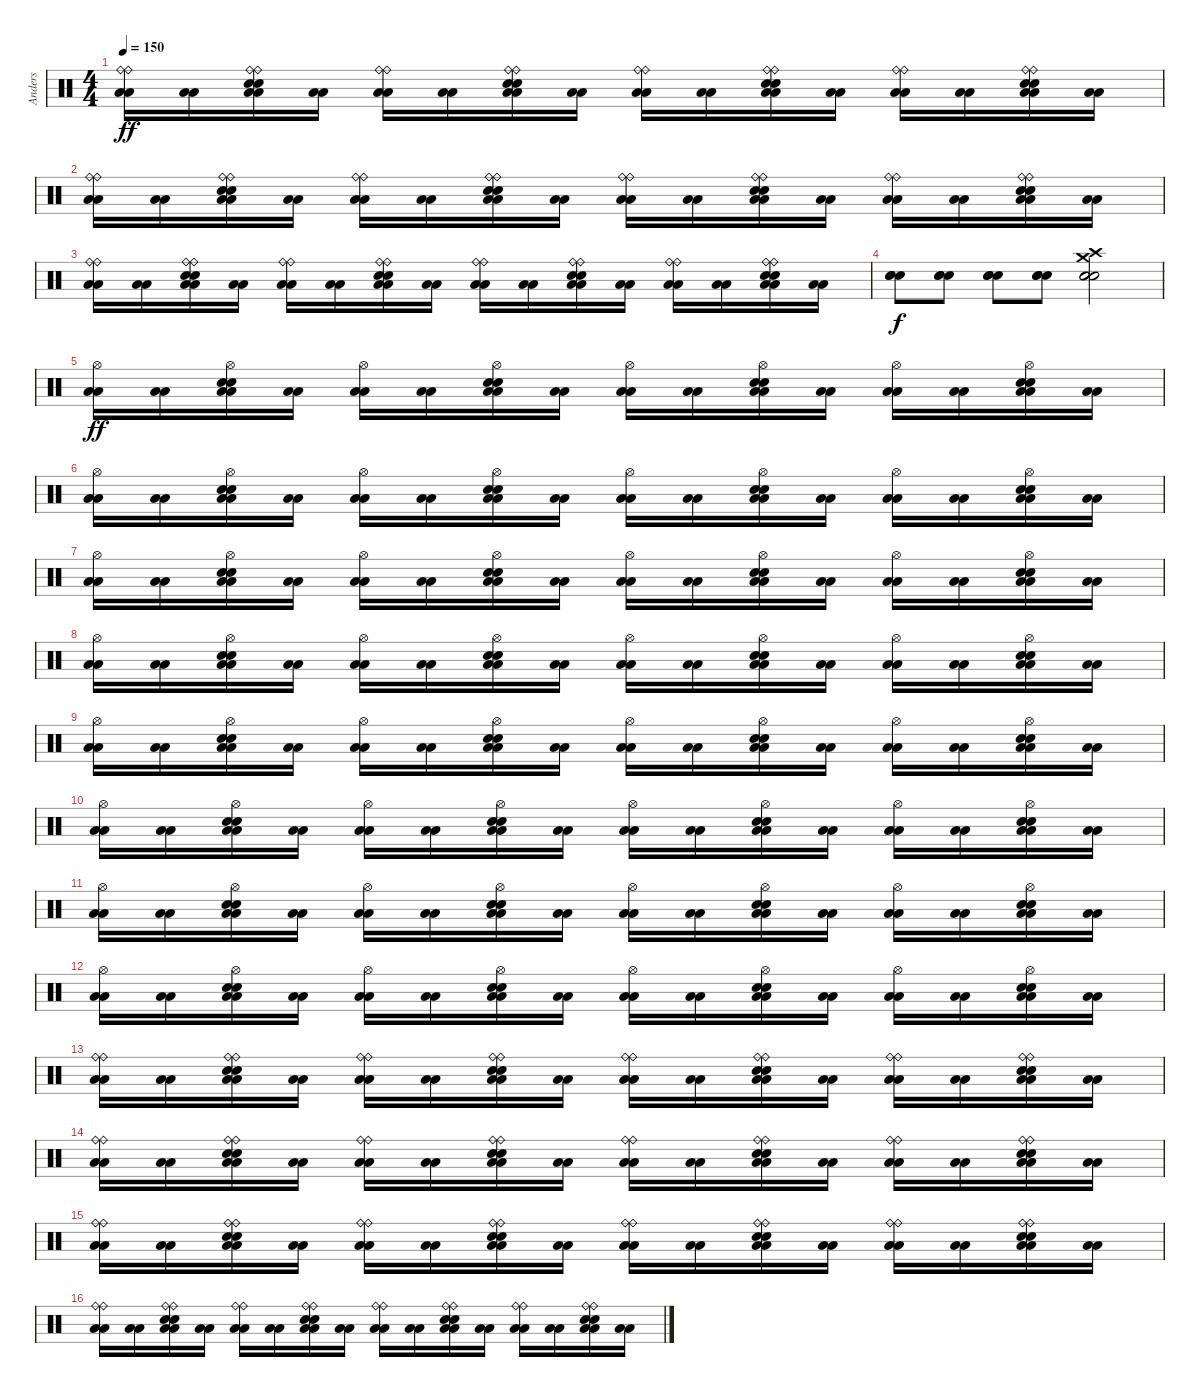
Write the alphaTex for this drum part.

\track ("Anders" "Anders") {instrument percussion}
\staff {score}
\articulation defaults
\ts (4 4)
\tempo 150
\clef neutral
\ks c
("Ride (bell)" "Ride (bell)" "Low Floor Tom (hit)" "Low Floor Tom (hit)").16{dy ff} ("Low Floor Tom (hit)" "Low Floor Tom (hit)").16 ("Ride (bell)" "Ride (bell)" "Electric Snare (hit)" "Electric Snare (hit)" "Low Floor Tom (hit)" "Low Floor Tom (hit)").16 ("Low Floor Tom (hit)" "Low Floor Tom (hit)").16 ("Ride (bell)" "Ride (bell)" "Low Floor Tom (hit)" "Low Floor Tom (hit)").16 ("Low Floor Tom (hit)" "Low Floor Tom (hit)").16 ("Ride (bell)" "Ride (bell)" "Electric Snare (hit)" "Electric Snare (hit)" "Low Floor Tom (hit)" "Low Floor Tom (hit)").16 ("Low Floor Tom (hit)" "Low Floor Tom (hit)").16 ("Ride (bell)" "Ride (bell)" "Low Floor Tom (hit)" "Low Floor Tom (hit)").16 ("Low Floor Tom (hit)" "Low Floor Tom (hit)").16 ("Ride (bell)" "Ride (bell)" "Electric Snare (hit)" "Electric Snare (hit)" "Low Floor Tom (hit)" "Low Floor Tom (hit)").16 ("Low Floor Tom (hit)" "Low Floor Tom (hit)").16 ("Ride (bell)" "Ride (bell)" "Low Floor Tom (hit)" "Low Floor Tom (hit)").16 ("Low Floor Tom (hit)" "Low Floor Tom (hit)").16 ("Ride (bell)" "Ride (bell)" "Electric Snare (hit)" "Electric Snare (hit)" "Low Floor Tom (hit)" "Low Floor Tom (hit)").16 ("Low Floor Tom (hit)" "Low Floor Tom (hit)").16 |
("Ride (bell)" "Ride (bell)" "Low Floor Tom (hit)" "Low Floor Tom (hit)").16 ("Low Floor Tom (hit)" "Low Floor Tom (hit)").16 ("Ride (bell)" "Ride (bell)" "Electric Snare (hit)" "Electric Snare (hit)" "Low Floor Tom (hit)" "Low Floor Tom (hit)").16 ("Low Floor Tom (hit)" "Low Floor Tom (hit)").16 ("Ride (bell)" "Ride (bell)" "Low Floor Tom (hit)" "Low Floor Tom (hit)").16 ("Low Floor Tom (hit)" "Low Floor Tom (hit)").16 ("Ride (bell)" "Ride (bell)" "Electric Snare (hit)" "Electric Snare (hit)" "Low Floor Tom (hit)" "Low Floor Tom (hit)").16 ("Low Floor Tom (hit)" "Low Floor Tom (hit)").16 ("Ride (bell)" "Ride (bell)" "Low Floor Tom (hit)" "Low Floor Tom (hit)").16 ("Low Floor Tom (hit)" "Low Floor Tom (hit)").16 ("Ride (bell)" "Ride (bell)" "Electric Snare (hit)" "Electric Snare (hit)" "Low Floor Tom (hit)" "Low Floor Tom (hit)").16 ("Low Floor Tom (hit)" "Low Floor Tom (hit)").16 ("Ride (bell)" "Ride (bell)" "Low Floor Tom (hit)" "Low Floor Tom (hit)").16 ("Low Floor Tom (hit)" "Low Floor Tom (hit)").16 ("Ride (bell)" "Ride (bell)" "Electric Snare (hit)" "Electric Snare (hit)" "Low Floor Tom (hit)" "Low Floor Tom (hit)").16 ("Low Floor Tom (hit)" "Low Floor Tom (hit)").16 |
("Ride (bell)" "Ride (bell)" "Low Floor Tom (hit)" "Low Floor Tom (hit)").16 ("Low Floor Tom (hit)" "Low Floor Tom (hit)").16 ("Ride (bell)" "Ride (bell)" "Electric Snare (hit)" "Electric Snare (hit)" "Low Floor Tom (hit)" "Low Floor Tom (hit)").16 ("Low Floor Tom (hit)" "Low Floor Tom (hit)").16 ("Ride (bell)" "Ride (bell)" "Low Floor Tom (hit)" "Low Floor Tom (hit)").16 ("Low Floor Tom (hit)" "Low Floor Tom (hit)").16 ("Ride (bell)" "Ride (bell)" "Electric Snare (hit)" "Electric Snare (hit)" "Low Floor Tom (hit)" "Low Floor Tom (hit)").16 ("Low Floor Tom (hit)" "Low Floor Tom (hit)").16 ("Ride (bell)" "Ride (bell)" "Low Floor Tom (hit)" "Low Floor Tom (hit)").16 ("Low Floor Tom (hit)" "Low Floor Tom (hit)").16 ("Ride (bell)" "Ride (bell)" "Electric Snare (hit)" "Electric Snare (hit)" "Low Floor Tom (hit)" "Low Floor Tom (hit)").16 ("Low Floor Tom (hit)" "Low Floor Tom (hit)").16 ("Ride (bell)" "Ride (bell)" "Low Floor Tom (hit)" "Low Floor Tom (hit)").16 ("Low Floor Tom (hit)" "Low Floor Tom (hit)").16 ("Ride (bell)" "Ride (bell)" "Electric Snare (hit)" "Electric Snare (hit)" "Low Floor Tom (hit)" "Low Floor Tom (hit)").16 ("Low Floor Tom (hit)" "Low Floor Tom (hit)").16 |
("Electric Snare (hit)" "Electric Snare (hit)" "Electric Snare (hit)").8{dy f} ("Electric Snare (hit)" "Electric Snare (hit)" "Electric Snare (hit)").8 ("Electric Snare (hit)" "Electric Snare (hit)" "Electric Snare (hit)").8 ("Electric Snare (hit)" "Electric Snare (hit)" "Electric Snare (hit)").8 ("Crash medium (hit)" "Crash high (hit)" "Electric Snare (hit)" "Electric Snare (hit)" "Electric Snare (hit)").2 |
("Hi-Hat (open)" "Low Floor Tom (hit)" "Low Floor Tom (hit)").16{dy ff} ("Low Floor Tom (hit)" "Low Floor Tom (hit)").16 ("Hi-Hat (open)" "Electric Snare (hit)" "Electric Snare (hit)" "Low Floor Tom (hit)" "Low Floor Tom (hit)").16 ("Low Floor Tom (hit)" "Low Floor Tom (hit)").16 ("Hi-Hat (open)" "Low Floor Tom (hit)" "Low Floor Tom (hit)").16 ("Low Floor Tom (hit)" "Low Floor Tom (hit)").16 ("Hi-Hat (open)" "Electric Snare (hit)" "Electric Snare (hit)" "Low Floor Tom (hit)" "Low Floor Tom (hit)").16 ("Low Floor Tom (hit)" "Low Floor Tom (hit)").16 ("Hi-Hat (open)" "Low Floor Tom (hit)" "Low Floor Tom (hit)").16 ("Low Floor Tom (hit)" "Low Floor Tom (hit)").16 ("Hi-Hat (open)" "Electric Snare (hit)" "Electric Snare (hit)" "Low Floor Tom (hit)" "Low Floor Tom (hit)").16 ("Low Floor Tom (hit)" "Low Floor Tom (hit)").16 ("Hi-Hat (open)" "Low Floor Tom (hit)" "Low Floor Tom (hit)").16 ("Low Floor Tom (hit)" "Low Floor Tom (hit)").16 ("Hi-Hat (open)" "Electric Snare (hit)" "Electric Snare (hit)" "Low Floor Tom (hit)" "Low Floor Tom (hit)").16 ("Low Floor Tom (hit)" "Low Floor Tom (hit)").16 |
("Hi-Hat (open)" "Low Floor Tom (hit)" "Low Floor Tom (hit)").16 ("Low Floor Tom (hit)" "Low Floor Tom (hit)").16 ("Hi-Hat (open)" "Electric Snare (hit)" "Electric Snare (hit)" "Low Floor Tom (hit)" "Low Floor Tom (hit)").16 ("Low Floor Tom (hit)" "Low Floor Tom (hit)").16 ("Hi-Hat (open)" "Low Floor Tom (hit)" "Low Floor Tom (hit)").16 ("Low Floor Tom (hit)" "Low Floor Tom (hit)").16 ("Hi-Hat (open)" "Electric Snare (hit)" "Electric Snare (hit)" "Low Floor Tom (hit)" "Low Floor Tom (hit)").16 ("Low Floor Tom (hit)" "Low Floor Tom (hit)").16 ("Hi-Hat (open)" "Low Floor Tom (hit)" "Low Floor Tom (hit)").16 ("Low Floor Tom (hit)" "Low Floor Tom (hit)").16 ("Hi-Hat (open)" "Electric Snare (hit)" "Electric Snare (hit)" "Low Floor Tom (hit)" "Low Floor Tom (hit)").16 ("Low Floor Tom (hit)" "Low Floor Tom (hit)").16 ("Hi-Hat (open)" "Low Floor Tom (hit)" "Low Floor Tom (hit)").16 ("Low Floor Tom (hit)" "Low Floor Tom (hit)").16 ("Hi-Hat (open)" "Electric Snare (hit)" "Electric Snare (hit)" "Low Floor Tom (hit)" "Low Floor Tom (hit)").16 ("Low Floor Tom (hit)" "Low Floor Tom (hit)").16 |
("Hi-Hat (open)" "Low Floor Tom (hit)" "Low Floor Tom (hit)").16 ("Low Floor Tom (hit)" "Low Floor Tom (hit)").16 ("Hi-Hat (open)" "Electric Snare (hit)" "Electric Snare (hit)" "Low Floor Tom (hit)" "Low Floor Tom (hit)").16 ("Low Floor Tom (hit)" "Low Floor Tom (hit)").16 ("Hi-Hat (open)" "Low Floor Tom (hit)" "Low Floor Tom (hit)").16 ("Low Floor Tom (hit)" "Low Floor Tom (hit)").16 ("Hi-Hat (open)" "Electric Snare (hit)" "Electric Snare (hit)" "Low Floor Tom (hit)" "Low Floor Tom (hit)").16 ("Low Floor Tom (hit)" "Low Floor Tom (hit)").16 ("Hi-Hat (open)" "Low Floor Tom (hit)" "Low Floor Tom (hit)").16 ("Low Floor Tom (hit)" "Low Floor Tom (hit)").16 ("Hi-Hat (open)" "Electric Snare (hit)" "Electric Snare (hit)" "Low Floor Tom (hit)" "Low Floor Tom (hit)").16 ("Low Floor Tom (hit)" "Low Floor Tom (hit)").16 ("Hi-Hat (open)" "Low Floor Tom (hit)" "Low Floor Tom (hit)").16 ("Low Floor Tom (hit)" "Low Floor Tom (hit)").16 ("Hi-Hat (open)" "Electric Snare (hit)" "Electric Snare (hit)" "Low Floor Tom (hit)" "Low Floor Tom (hit)").16 ("Low Floor Tom (hit)" "Low Floor Tom (hit)").16 |
("Hi-Hat (open)" "Low Floor Tom (hit)" "Low Floor Tom (hit)").16 ("Low Floor Tom (hit)" "Low Floor Tom (hit)").16 ("Hi-Hat (open)" "Electric Snare (hit)" "Electric Snare (hit)" "Low Floor Tom (hit)" "Low Floor Tom (hit)").16 ("Low Floor Tom (hit)" "Low Floor Tom (hit)").16 ("Hi-Hat (open)" "Low Floor Tom (hit)" "Low Floor Tom (hit)").16 ("Low Floor Tom (hit)" "Low Floor Tom (hit)").16 ("Hi-Hat (open)" "Electric Snare (hit)" "Electric Snare (hit)" "Low Floor Tom (hit)" "Low Floor Tom (hit)").16 ("Low Floor Tom (hit)" "Low Floor Tom (hit)").16 ("Hi-Hat (open)" "Low Floor Tom (hit)" "Low Floor Tom (hit)").16 ("Low Floor Tom (hit)" "Low Floor Tom (hit)").16 ("Hi-Hat (open)" "Electric Snare (hit)" "Electric Snare (hit)" "Low Floor Tom (hit)" "Low Floor Tom (hit)").16 ("Low Floor Tom (hit)" "Low Floor Tom (hit)").16 ("Hi-Hat (open)" "Low Floor Tom (hit)" "Low Floor Tom (hit)").16 ("Low Floor Tom (hit)" "Low Floor Tom (hit)").16 ("Hi-Hat (open)" "Electric Snare (hit)" "Electric Snare (hit)" "Low Floor Tom (hit)" "Low Floor Tom (hit)").16 ("Low Floor Tom (hit)" "Low Floor Tom (hit)").16 |
("Hi-Hat (open)" "Low Floor Tom (hit)" "Low Floor Tom (hit)").16 ("Low Floor Tom (hit)" "Low Floor Tom (hit)").16 ("Hi-Hat (open)" "Electric Snare (hit)" "Electric Snare (hit)" "Low Floor Tom (hit)" "Low Floor Tom (hit)").16 ("Low Floor Tom (hit)" "Low Floor Tom (hit)").16 ("Hi-Hat (open)" "Low Floor Tom (hit)" "Low Floor Tom (hit)").16 ("Low Floor Tom (hit)" "Low Floor Tom (hit)").16 ("Hi-Hat (open)" "Electric Snare (hit)" "Electric Snare (hit)" "Low Floor Tom (hit)" "Low Floor Tom (hit)").16 ("Low Floor Tom (hit)" "Low Floor Tom (hit)").16 ("Hi-Hat (open)" "Low Floor Tom (hit)" "Low Floor Tom (hit)").16 ("Low Floor Tom (hit)" "Low Floor Tom (hit)").16 ("Hi-Hat (open)" "Electric Snare (hit)" "Electric Snare (hit)" "Low Floor Tom (hit)" "Low Floor Tom (hit)").16 ("Low Floor Tom (hit)" "Low Floor Tom (hit)").16 ("Hi-Hat (open)" "Low Floor Tom (hit)" "Low Floor Tom (hit)").16 ("Low Floor Tom (hit)" "Low Floor Tom (hit)").16 ("Hi-Hat (open)" "Electric Snare (hit)" "Electric Snare (hit)" "Low Floor Tom (hit)" "Low Floor Tom (hit)").16 ("Low Floor Tom (hit)" "Low Floor Tom (hit)").16 |
("Hi-Hat (open)" "Low Floor Tom (hit)" "Low Floor Tom (hit)").16 ("Low Floor Tom (hit)" "Low Floor Tom (hit)").16 ("Hi-Hat (open)" "Electric Snare (hit)" "Electric Snare (hit)" "Low Floor Tom (hit)" "Low Floor Tom (hit)").16 ("Low Floor Tom (hit)" "Low Floor Tom (hit)").16 ("Hi-Hat (open)" "Low Floor Tom (hit)" "Low Floor Tom (hit)").16 ("Low Floor Tom (hit)" "Low Floor Tom (hit)").16 ("Hi-Hat (open)" "Electric Snare (hit)" "Electric Snare (hit)" "Low Floor Tom (hit)" "Low Floor Tom (hit)").16 ("Low Floor Tom (hit)" "Low Floor Tom (hit)").16 ("Hi-Hat (open)" "Low Floor Tom (hit)" "Low Floor Tom (hit)").16 ("Low Floor Tom (hit)" "Low Floor Tom (hit)").16 ("Hi-Hat (open)" "Electric Snare (hit)" "Electric Snare (hit)" "Low Floor Tom (hit)" "Low Floor Tom (hit)").16 ("Low Floor Tom (hit)" "Low Floor Tom (hit)").16 ("Hi-Hat (open)" "Low Floor Tom (hit)" "Low Floor Tom (hit)").16 ("Low Floor Tom (hit)" "Low Floor Tom (hit)").16 ("Hi-Hat (open)" "Electric Snare (hit)" "Electric Snare (hit)" "Low Floor Tom (hit)" "Low Floor Tom (hit)").16 ("Low Floor Tom (hit)" "Low Floor Tom (hit)").16 |
("Hi-Hat (open)" "Low Floor Tom (hit)" "Low Floor Tom (hit)").16 ("Low Floor Tom (hit)" "Low Floor Tom (hit)").16 ("Hi-Hat (open)" "Electric Snare (hit)" "Electric Snare (hit)" "Low Floor Tom (hit)" "Low Floor Tom (hit)").16 ("Low Floor Tom (hit)" "Low Floor Tom (hit)").16 ("Hi-Hat (open)" "Low Floor Tom (hit)" "Low Floor Tom (hit)").16 ("Low Floor Tom (hit)" "Low Floor Tom (hit)").16 ("Hi-Hat (open)" "Electric Snare (hit)" "Electric Snare (hit)" "Low Floor Tom (hit)" "Low Floor Tom (hit)").16 ("Low Floor Tom (hit)" "Low Floor Tom (hit)").16 ("Hi-Hat (open)" "Low Floor Tom (hit)" "Low Floor Tom (hit)").16 ("Low Floor Tom (hit)" "Low Floor Tom (hit)").16 ("Hi-Hat (open)" "Electric Snare (hit)" "Electric Snare (hit)" "Low Floor Tom (hit)" "Low Floor Tom (hit)").16 ("Low Floor Tom (hit)" "Low Floor Tom (hit)").16 ("Hi-Hat (open)" "Low Floor Tom (hit)" "Low Floor Tom (hit)").16 ("Low Floor Tom (hit)" "Low Floor Tom (hit)").16 ("Hi-Hat (open)" "Electric Snare (hit)" "Electric Snare (hit)" "Low Floor Tom (hit)" "Low Floor Tom (hit)").16 ("Low Floor Tom (hit)" "Low Floor Tom (hit)").16 |
("Hi-Hat (open)" "Low Floor Tom (hit)" "Low Floor Tom (hit)").16 ("Low Floor Tom (hit)" "Low Floor Tom (hit)").16 ("Hi-Hat (open)" "Electric Snare (hit)" "Electric Snare (hit)" "Low Floor Tom (hit)" "Low Floor Tom (hit)").16 ("Low Floor Tom (hit)" "Low Floor Tom (hit)").16 ("Hi-Hat (open)" "Low Floor Tom (hit)" "Low Floor Tom (hit)").16 ("Low Floor Tom (hit)" "Low Floor Tom (hit)").16 ("Hi-Hat (open)" "Electric Snare (hit)" "Electric Snare (hit)" "Low Floor Tom (hit)" "Low Floor Tom (hit)").16 ("Low Floor Tom (hit)" "Low Floor Tom (hit)").16 ("Hi-Hat (open)" "Low Floor Tom (hit)" "Low Floor Tom (hit)").16 ("Low Floor Tom (hit)" "Low Floor Tom (hit)").16 ("Hi-Hat (open)" "Electric Snare (hit)" "Electric Snare (hit)" "Low Floor Tom (hit)" "Low Floor Tom (hit)").16 ("Low Floor Tom (hit)" "Low Floor Tom (hit)").16 ("Hi-Hat (open)" "Low Floor Tom (hit)" "Low Floor Tom (hit)").16 ("Low Floor Tom (hit)" "Low Floor Tom (hit)").16 ("Hi-Hat (open)" "Electric Snare (hit)" "Electric Snare (hit)" "Low Floor Tom (hit)" "Low Floor Tom (hit)").16 ("Low Floor Tom (hit)" "Low Floor Tom (hit)").16 |
("Ride (bell)" "Ride (bell)" "Low Floor Tom (hit)" "Low Floor Tom (hit)").16 ("Low Floor Tom (hit)" "Low Floor Tom (hit)").16 ("Ride (bell)" "Ride (bell)" "Electric Snare (hit)" "Electric Snare (hit)" "Low Floor Tom (hit)" "Low Floor Tom (hit)").16 ("Low Floor Tom (hit)" "Low Floor Tom (hit)").16 ("Ride (bell)" "Ride (bell)" "Low Floor Tom (hit)" "Low Floor Tom (hit)").16 ("Low Floor Tom (hit)" "Low Floor Tom (hit)").16 ("Ride (bell)" "Ride (bell)" "Electric Snare (hit)" "Electric Snare (hit)" "Low Floor Tom (hit)" "Low Floor Tom (hit)").16 ("Low Floor Tom (hit)" "Low Floor Tom (hit)").16 ("Ride (bell)" "Ride (bell)" "Low Floor Tom (hit)" "Low Floor Tom (hit)").16 ("Low Floor Tom (hit)" "Low Floor Tom (hit)").16 ("Ride (bell)" "Ride (bell)" "Electric Snare (hit)" "Electric Snare (hit)" "Low Floor Tom (hit)" "Low Floor Tom (hit)").16 ("Low Floor Tom (hit)" "Low Floor Tom (hit)").16 ("Ride (bell)" "Ride (bell)" "Low Floor Tom (hit)" "Low Floor Tom (hit)").16 ("Low Floor Tom (hit)" "Low Floor Tom (hit)").16 ("Ride (bell)" "Ride (bell)" "Electric Snare (hit)" "Electric Snare (hit)" "Low Floor Tom (hit)" "Low Floor Tom (hit)").16 ("Low Floor Tom (hit)" "Low Floor Tom (hit)").16 |
("Ride (bell)" "Ride (bell)" "Low Floor Tom (hit)" "Low Floor Tom (hit)").16 ("Low Floor Tom (hit)" "Low Floor Tom (hit)").16 ("Ride (bell)" "Ride (bell)" "Electric Snare (hit)" "Electric Snare (hit)" "Low Floor Tom (hit)" "Low Floor Tom (hit)").16 ("Low Floor Tom (hit)" "Low Floor Tom (hit)").16 ("Ride (bell)" "Ride (bell)" "Low Floor Tom (hit)" "Low Floor Tom (hit)").16 ("Low Floor Tom (hit)" "Low Floor Tom (hit)").16 ("Ride (bell)" "Ride (bell)" "Electric Snare (hit)" "Electric Snare (hit)" "Low Floor Tom (hit)" "Low Floor Tom (hit)").16 ("Low Floor Tom (hit)" "Low Floor Tom (hit)").16 ("Ride (bell)" "Ride (bell)" "Low Floor Tom (hit)" "Low Floor Tom (hit)").16 ("Low Floor Tom (hit)" "Low Floor Tom (hit)").16 ("Ride (bell)" "Ride (bell)" "Electric Snare (hit)" "Electric Snare (hit)" "Low Floor Tom (hit)" "Low Floor Tom (hit)").16 ("Low Floor Tom (hit)" "Low Floor Tom (hit)").16 ("Ride (bell)" "Ride (bell)" "Low Floor Tom (hit)" "Low Floor Tom (hit)").16 ("Low Floor Tom (hit)" "Low Floor Tom (hit)").16 ("Ride (bell)" "Ride (bell)" "Electric Snare (hit)" "Electric Snare (hit)" "Low Floor Tom (hit)" "Low Floor Tom (hit)").16 ("Low Floor Tom (hit)" "Low Floor Tom (hit)").16 |
("Ride (bell)" "Ride (bell)" "Low Floor Tom (hit)" "Low Floor Tom (hit)").16 ("Low Floor Tom (hit)" "Low Floor Tom (hit)").16 ("Ride (bell)" "Ride (bell)" "Electric Snare (hit)" "Electric Snare (hit)" "Low Floor Tom (hit)" "Low Floor Tom (hit)").16 ("Low Floor Tom (hit)" "Low Floor Tom (hit)").16 ("Ride (bell)" "Ride (bell)" "Low Floor Tom (hit)" "Low Floor Tom (hit)").16 ("Low Floor Tom (hit)" "Low Floor Tom (hit)").16 ("Ride (bell)" "Ride (bell)" "Electric Snare (hit)" "Electric Snare (hit)" "Low Floor Tom (hit)" "Low Floor Tom (hit)").16 ("Low Floor Tom (hit)" "Low Floor Tom (hit)").16 ("Ride (bell)" "Ride (bell)" "Low Floor Tom (hit)" "Low Floor Tom (hit)").16 ("Low Floor Tom (hit)" "Low Floor Tom (hit)").16 ("Ride (bell)" "Ride (bell)" "Electric Snare (hit)" "Electric Snare (hit)" "Low Floor Tom (hit)" "Low Floor Tom (hit)").16 ("Low Floor Tom (hit)" "Low Floor Tom (hit)").16 ("Ride (bell)" "Ride (bell)" "Low Floor Tom (hit)" "Low Floor Tom (hit)").16 ("Low Floor Tom (hit)" "Low Floor Tom (hit)").16 ("Ride (bell)" "Ride (bell)" "Electric Snare (hit)" "Electric Snare (hit)" "Low Floor Tom (hit)" "Low Floor Tom (hit)").16 ("Low Floor Tom (hit)" "Low Floor Tom (hit)").16 |
("Ride (bell)" "Ride (bell)" "Low Floor Tom (hit)" "Low Floor Tom (hit)").16 ("Low Floor Tom (hit)" "Low Floor Tom (hit)").16 ("Ride (bell)" "Ride (bell)" "Electric Snare (hit)" "Electric Snare (hit)" "Low Floor Tom (hit)" "Low Floor Tom (hit)").16 ("Low Floor Tom (hit)" "Low Floor Tom (hit)").16 ("Ride (bell)" "Ride (bell)" "Low Floor Tom (hit)" "Low Floor Tom (hit)").16 ("Low Floor Tom (hit)" "Low Floor Tom (hit)").16 ("Ride (bell)" "Ride (bell)" "Electric Snare (hit)" "Electric Snare (hit)" "Low Floor Tom (hit)" "Low Floor Tom (hit)").16 ("Low Floor Tom (hit)" "Low Floor Tom (hit)").16 ("Ride (bell)" "Ride (bell)" "Low Floor Tom (hit)" "Low Floor Tom (hit)").16 ("Low Floor Tom (hit)" "Low Floor Tom (hit)").16 ("Ride (bell)" "Ride (bell)" "Electric Snare (hit)" "Electric Snare (hit)" "Low Floor Tom (hit)" "Low Floor Tom (hit)").16 ("Low Floor Tom (hit)" "Low Floor Tom (hit)").16 ("Ride (bell)" "Ride (bell)" "Low Floor Tom (hit)" "Low Floor Tom (hit)").16 ("Low Floor Tom (hit)" "Low Floor Tom (hit)").16 ("Ride (bell)" "Ride (bell)" "Electric Snare (hit)" "Electric Snare (hit)" "Low Floor Tom (hit)" "Low Floor Tom (hit)").16 ("Low Floor Tom (hit)" "Low Floor Tom (hit)").16
